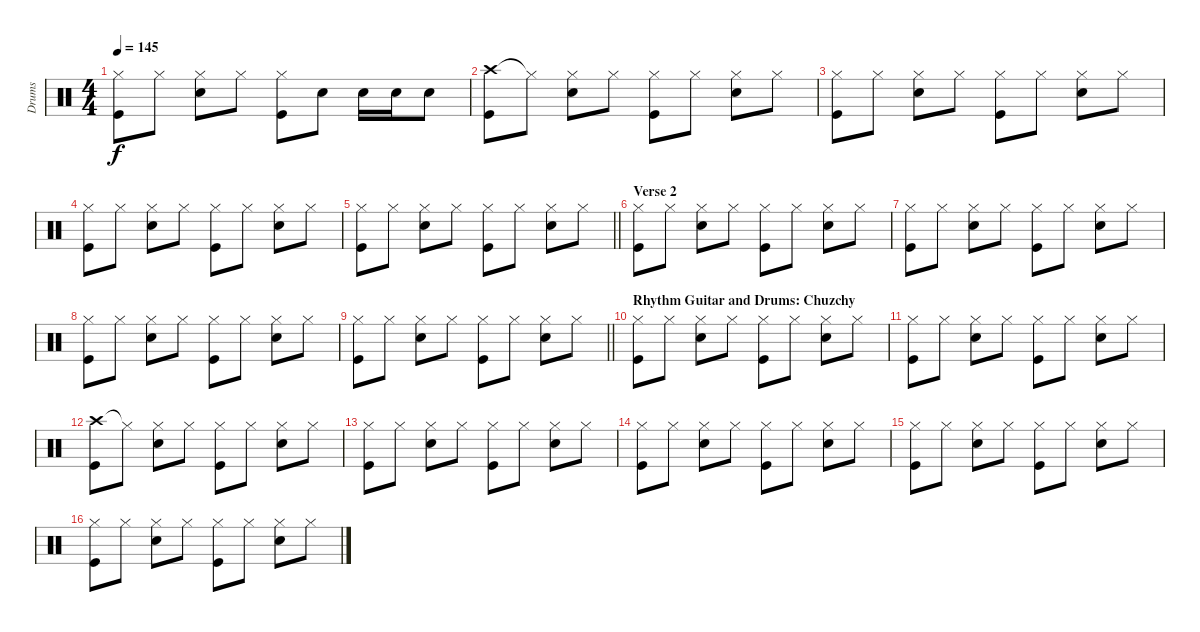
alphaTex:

\track ("Drums" "Drums") {instrument percussion}
\staff {score}
\articulation defaults
\ts (4 4)
\tempo 145
\clef neutral
\ks c
("Hi-Hat (closed)" "Kick (hit)").8{dy f} "Hi-Hat (closed)".8 ("Hi-Hat (closed)" "Electric Snare (hit)").8 "Hi-Hat (closed)".8 ("Hi-Hat (closed)" "Kick (hit)").8 "Electric Snare (hit)".8 "Electric Snare (hit)".16 "Electric Snare (hit)".16 "Electric Snare (hit)".8 |
("Crash high (hit)" "Kick (hit)").8 "Hi-Hat (closed)"{t}.8 ("Hi-Hat (closed)" "Electric Snare (hit)").8 "Hi-Hat (closed)".8 ("Hi-Hat (closed)" "Kick (hit)").8 "Hi-Hat (closed)".8 ("Hi-Hat (closed)" "Electric Snare (hit)").8 "Hi-Hat (closed)".8 |
("Hi-Hat (closed)" "Kick (hit)").8 "Hi-Hat (closed)".8 ("Hi-Hat (closed)" "Electric Snare (hit)").8 "Hi-Hat (closed)".8 ("Hi-Hat (closed)" "Kick (hit)").8 "Hi-Hat (closed)".8 ("Hi-Hat (closed)" "Electric Snare (hit)").8 "Hi-Hat (closed)".8 |
("Hi-Hat (closed)" "Kick (hit)").8 "Hi-Hat (closed)".8 ("Hi-Hat (closed)" "Electric Snare (hit)").8 "Hi-Hat (closed)".8 ("Hi-Hat (closed)" "Kick (hit)").8 "Hi-Hat (closed)".8 ("Hi-Hat (closed)" "Electric Snare (hit)").8 "Hi-Hat (closed)".8 |
\barLineRight lightlight
("Hi-Hat (closed)" "Kick (hit)").8 "Hi-Hat (closed)".8 ("Hi-Hat (closed)" "Electric Snare (hit)").8 "Hi-Hat (closed)".8 ("Hi-Hat (closed)" "Kick (hit)").8 "Hi-Hat (closed)".8 ("Hi-Hat (closed)" "Electric Snare (hit)").8 "Hi-Hat (closed)".8 |
\section ("" "Verse 2")
("Hi-Hat (closed)" "Kick (hit)").8 "Hi-Hat (closed)".8 ("Hi-Hat (closed)" "Electric Snare (hit)").8 "Hi-Hat (closed)".8 ("Hi-Hat (closed)" "Kick (hit)").8 "Hi-Hat (closed)".8 ("Hi-Hat (closed)" "Electric Snare (hit)").8 "Hi-Hat (closed)".8 |
("Hi-Hat (closed)" "Kick (hit)").8 "Hi-Hat (closed)".8 ("Hi-Hat (closed)" "Electric Snare (hit)").8 "Hi-Hat (closed)".8 ("Hi-Hat (closed)" "Kick (hit)").8 "Hi-Hat (closed)".8 ("Hi-Hat (closed)" "Electric Snare (hit)").8 "Hi-Hat (closed)".8 |
("Hi-Hat (closed)" "Kick (hit)").8 "Hi-Hat (closed)".8 ("Hi-Hat (closed)" "Electric Snare (hit)").8 "Hi-Hat (closed)".8 ("Hi-Hat (closed)" "Kick (hit)").8 "Hi-Hat (closed)".8 ("Hi-Hat (closed)" "Electric Snare (hit)").8 "Hi-Hat (closed)".8 |
\barLineRight lightlight
("Hi-Hat (closed)" "Kick (hit)").8 "Hi-Hat (closed)".8 ("Hi-Hat (closed)" "Electric Snare (hit)").8 "Hi-Hat (closed)".8 ("Hi-Hat (closed)" "Kick (hit)").8 "Hi-Hat (closed)".8 ("Hi-Hat (closed)" "Electric Snare (hit)").8 "Hi-Hat (closed)".8 |
\section ("" "Rhythm Guitar and Drums: Chuzchy")
("Hi-Hat (closed)" "Kick (hit)").8 "Hi-Hat (closed)".8 ("Hi-Hat (closed)" "Electric Snare (hit)").8 "Hi-Hat (closed)".8 ("Hi-Hat (closed)" "Kick (hit)").8 "Hi-Hat (closed)".8 ("Hi-Hat (closed)" "Electric Snare (hit)").8 "Hi-Hat (closed)".8 |
("Hi-Hat (closed)" "Kick (hit)").8 "Hi-Hat (closed)".8 ("Hi-Hat (closed)" "Electric Snare (hit)").8 "Hi-Hat (closed)".8 ("Hi-Hat (closed)" "Kick (hit)").8 "Hi-Hat (closed)".8 ("Hi-Hat (closed)" "Electric Snare (hit)").8 "Hi-Hat (closed)".8 |
("Crash high (hit)" "Kick (hit)").8 "Hi-Hat (closed)"{t}.8 ("Hi-Hat (closed)" "Electric Snare (hit)").8 "Hi-Hat (closed)".8 ("Hi-Hat (closed)" "Kick (hit)").8 "Hi-Hat (closed)".8 ("Hi-Hat (closed)" "Electric Snare (hit)").8 "Hi-Hat (closed)".8 |
("Hi-Hat (closed)" "Kick (hit)").8 "Hi-Hat (closed)".8 ("Hi-Hat (closed)" "Electric Snare (hit)").8 "Hi-Hat (closed)".8 ("Hi-Hat (closed)" "Kick (hit)").8 "Hi-Hat (closed)".8 ("Hi-Hat (closed)" "Electric Snare (hit)").8 "Hi-Hat (closed)".8 |
("Hi-Hat (closed)" "Kick (hit)").8 "Hi-Hat (closed)".8 ("Hi-Hat (closed)" "Electric Snare (hit)").8 "Hi-Hat (closed)".8 ("Hi-Hat (closed)" "Kick (hit)").8 "Hi-Hat (closed)".8 ("Hi-Hat (closed)" "Electric Snare (hit)").8 "Hi-Hat (closed)".8 |
("Hi-Hat (closed)" "Kick (hit)").8 "Hi-Hat (closed)".8 ("Hi-Hat (closed)" "Electric Snare (hit)").8 "Hi-Hat (closed)".8 ("Hi-Hat (closed)" "Kick (hit)").8 "Hi-Hat (closed)".8 ("Hi-Hat (closed)" "Electric Snare (hit)").8 "Hi-Hat (closed)".8 |
("Hi-Hat (closed)" "Kick (hit)").8 "Hi-Hat (closed)".8 ("Hi-Hat (closed)" "Electric Snare (hit)").8 "Hi-Hat (closed)".8 ("Hi-Hat (closed)" "Kick (hit)").8 "Hi-Hat (closed)".8 ("Hi-Hat (closed)" "Electric Snare (hit)").8 "Hi-Hat (closed)".8
